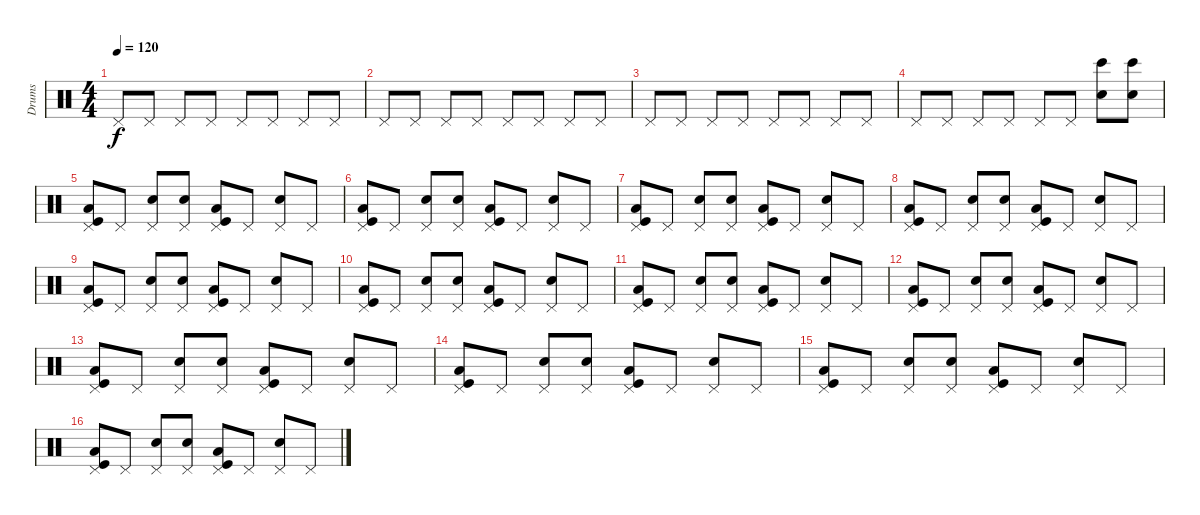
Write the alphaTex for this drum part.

\track ("Drums" "Drums") {instrument percussion}
\staff {score}
\articulation defaults
\ts (4 4)
\tempo 120
\clef neutral
\ks c "Pedal Hi-Hat (hit)".8{dy f} "Pedal Hi-Hat (hit)".8 "Pedal Hi-Hat (hit)".8 "Pedal Hi-Hat (hit)".8 "Pedal Hi-Hat (hit)".8 "Pedal Hi-Hat (hit)".8 "Pedal Hi-Hat (hit)".8 "Pedal Hi-Hat (hit)".8
|
"Pedal Hi-Hat (hit)".8 "Pedal Hi-Hat (hit)".8 "Pedal Hi-Hat (hit)".8 "Pedal Hi-Hat (hit)".8 "Pedal Hi-Hat (hit)".8 "Pedal Hi-Hat (hit)".8 "Pedal Hi-Hat (hit)".8 "Pedal Hi-Hat (hit)".8 |
"Pedal Hi-Hat (hit)".8 "Pedal Hi-Hat (hit)".8 "Pedal Hi-Hat (hit)".8 "Pedal Hi-Hat (hit)".8 "Pedal Hi-Hat (hit)".8 "Pedal Hi-Hat (hit)".8 "Pedal Hi-Hat (hit)".8 "Pedal Hi-Hat (hit)".8 |
"Pedal Hi-Hat (hit)".8 "Pedal Hi-Hat (hit)".8 "Pedal Hi-Hat (hit)".8 "Pedal Hi-Hat (hit)".8 "Pedal Hi-Hat (hit)".8 "Pedal Hi-Hat (hit)".8 ("Bongo High (hit)" "Hand Clap (hit)").8 ("Bongo High (hit)" "Hand Clap (hit)").8 |
("Kick (hit)" "Pedal Hi-Hat (hit)" "Low Floor Tom (hit)").8 "Pedal Hi-Hat (hit)".8 ("Snare (hit) 2" "Pedal Hi-Hat (hit)").8 ("Snare (hit) 2" "Pedal Hi-Hat (hit)").8 ("Kick (hit)" "Pedal Hi-Hat (hit)" "Low Floor Tom (hit)").8 "Pedal Hi-Hat (hit)".8 ("Snare (hit) 2" "Pedal Hi-Hat (hit)").8 "Pedal Hi-Hat (hit)".8 |
("Kick (hit)" "Pedal Hi-Hat (hit)" "Low Floor Tom (hit)").8 "Pedal Hi-Hat (hit)".8 ("Snare (hit) 2" "Pedal Hi-Hat (hit)").8 ("Snare (hit) 2" "Pedal Hi-Hat (hit)").8 ("Kick (hit)" "Pedal Hi-Hat (hit)" "Low Floor Tom (hit)").8 "Pedal Hi-Hat (hit)".8 ("Snare (hit) 2" "Pedal Hi-Hat (hit)").8 "Pedal Hi-Hat (hit)".8 |
("Kick (hit)" "Pedal Hi-Hat (hit)" "Low Floor Tom (hit)").8 "Pedal Hi-Hat (hit)".8 ("Snare (hit) 2" "Pedal Hi-Hat (hit)").8 ("Snare (hit) 2" "Pedal Hi-Hat (hit)").8 ("Kick (hit)" "Pedal Hi-Hat (hit)" "Low Floor Tom (hit)").8 "Pedal Hi-Hat (hit)".8 ("Snare (hit) 2" "Pedal Hi-Hat (hit)").8 "Pedal Hi-Hat (hit)".8 |
("Kick (hit)" "Pedal Hi-Hat (hit)" "Low Floor Tom (hit)").8 "Pedal Hi-Hat (hit)".8 ("Snare (hit) 2" "Pedal Hi-Hat (hit)").8 ("Snare (hit) 2" "Pedal Hi-Hat (hit)").8 ("Kick (hit)" "Pedal Hi-Hat (hit)" "Low Floor Tom (hit)").8 "Pedal Hi-Hat (hit)".8 ("Snare (hit) 2" "Pedal Hi-Hat (hit)").8 "Pedal Hi-Hat (hit)".8 |
("Kick (hit)" "Pedal Hi-Hat (hit)" "Low Floor Tom (hit)").8 "Pedal Hi-Hat (hit)".8 ("Snare (hit) 2" "Pedal Hi-Hat (hit)").8 ("Snare (hit) 2" "Pedal Hi-Hat (hit)").8 ("Kick (hit)" "Pedal Hi-Hat (hit)" "Low Floor Tom (hit)").8 "Pedal Hi-Hat (hit)".8 ("Snare (hit) 2" "Pedal Hi-Hat (hit)").8 "Pedal Hi-Hat (hit)".8 |
("Kick (hit)" "Pedal Hi-Hat (hit)" "Low Floor Tom (hit)").8 "Pedal Hi-Hat (hit)".8 ("Snare (hit) 2" "Pedal Hi-Hat (hit)").8 ("Snare (hit) 2" "Pedal Hi-Hat (hit)").8 ("Kick (hit)" "Pedal Hi-Hat (hit)" "Low Floor Tom (hit)").8 "Pedal Hi-Hat (hit)".8 ("Snare (hit) 2" "Pedal Hi-Hat (hit)").8 "Pedal Hi-Hat (hit)".8 |
("Kick (hit)" "Pedal Hi-Hat (hit)" "Low Floor Tom (hit)").8 "Pedal Hi-Hat (hit)".8 ("Snare (hit) 2" "Pedal Hi-Hat (hit)").8 ("Snare (hit) 2" "Pedal Hi-Hat (hit)").8 ("Kick (hit)" "Pedal Hi-Hat (hit)" "Low Floor Tom (hit)").8 "Pedal Hi-Hat (hit)".8 ("Snare (hit) 2" "Pedal Hi-Hat (hit)").8 "Pedal Hi-Hat (hit)".8 |
("Kick (hit)" "Pedal Hi-Hat (hit)" "Low Floor Tom (hit)").8 "Pedal Hi-Hat (hit)".8 ("Snare (hit) 2" "Pedal Hi-Hat (hit)").8 ("Snare (hit) 2" "Pedal Hi-Hat (hit)").8 ("Kick (hit)" "Pedal Hi-Hat (hit)" "Low Floor Tom (hit)").8 "Pedal Hi-Hat (hit)".8 ("Snare (hit) 2" "Pedal Hi-Hat (hit)").8 "Pedal Hi-Hat (hit)".8 |
("Kick (hit)" "Pedal Hi-Hat (hit)" "Low Floor Tom (hit)").8 "Pedal Hi-Hat (hit)".8 ("Snare (hit) 2" "Pedal Hi-Hat (hit)").8 ("Snare (hit) 2" "Pedal Hi-Hat (hit)").8 ("Kick (hit)" "Pedal Hi-Hat (hit)" "Low Floor Tom (hit)").8 "Pedal Hi-Hat (hit)".8 ("Snare (hit) 2" "Pedal Hi-Hat (hit)").8 "Pedal Hi-Hat (hit)".8 |
("Kick (hit)" "Pedal Hi-Hat (hit)" "Low Floor Tom (hit)").8 "Pedal Hi-Hat (hit)".8 ("Snare (hit) 2" "Pedal Hi-Hat (hit)").8 ("Snare (hit) 2" "Pedal Hi-Hat (hit)").8 ("Kick (hit)" "Pedal Hi-Hat (hit)" "Low Floor Tom (hit)").8 "Pedal Hi-Hat (hit)".8 ("Snare (hit) 2" "Pedal Hi-Hat (hit)").8 "Pedal Hi-Hat (hit)".8 |
("Kick (hit)" "Pedal Hi-Hat (hit)" "Low Floor Tom (hit)").8 "Pedal Hi-Hat (hit)".8 ("Snare (hit) 2" "Pedal Hi-Hat (hit)").8 ("Snare (hit) 2" "Pedal Hi-Hat (hit)").8 ("Kick (hit)" "Pedal Hi-Hat (hit)" "Low Floor Tom (hit)").8 "Pedal Hi-Hat (hit)".8 ("Snare (hit) 2" "Pedal Hi-Hat (hit)").8 "Pedal Hi-Hat (hit)".8 |
("Kick (hit)" "Pedal Hi-Hat (hit)" "Low Floor Tom (hit)").8 "Pedal Hi-Hat (hit)".8 ("Snare (hit) 2" "Pedal Hi-Hat (hit)").8 ("Snare (hit) 2" "Pedal Hi-Hat (hit)").8 ("Kick (hit)" "Pedal Hi-Hat (hit)" "Low Floor Tom (hit)").8 "Pedal Hi-Hat (hit)".8 ("Snare (hit) 2" "Pedal Hi-Hat (hit)").8 "Pedal Hi-Hat (hit)".8
